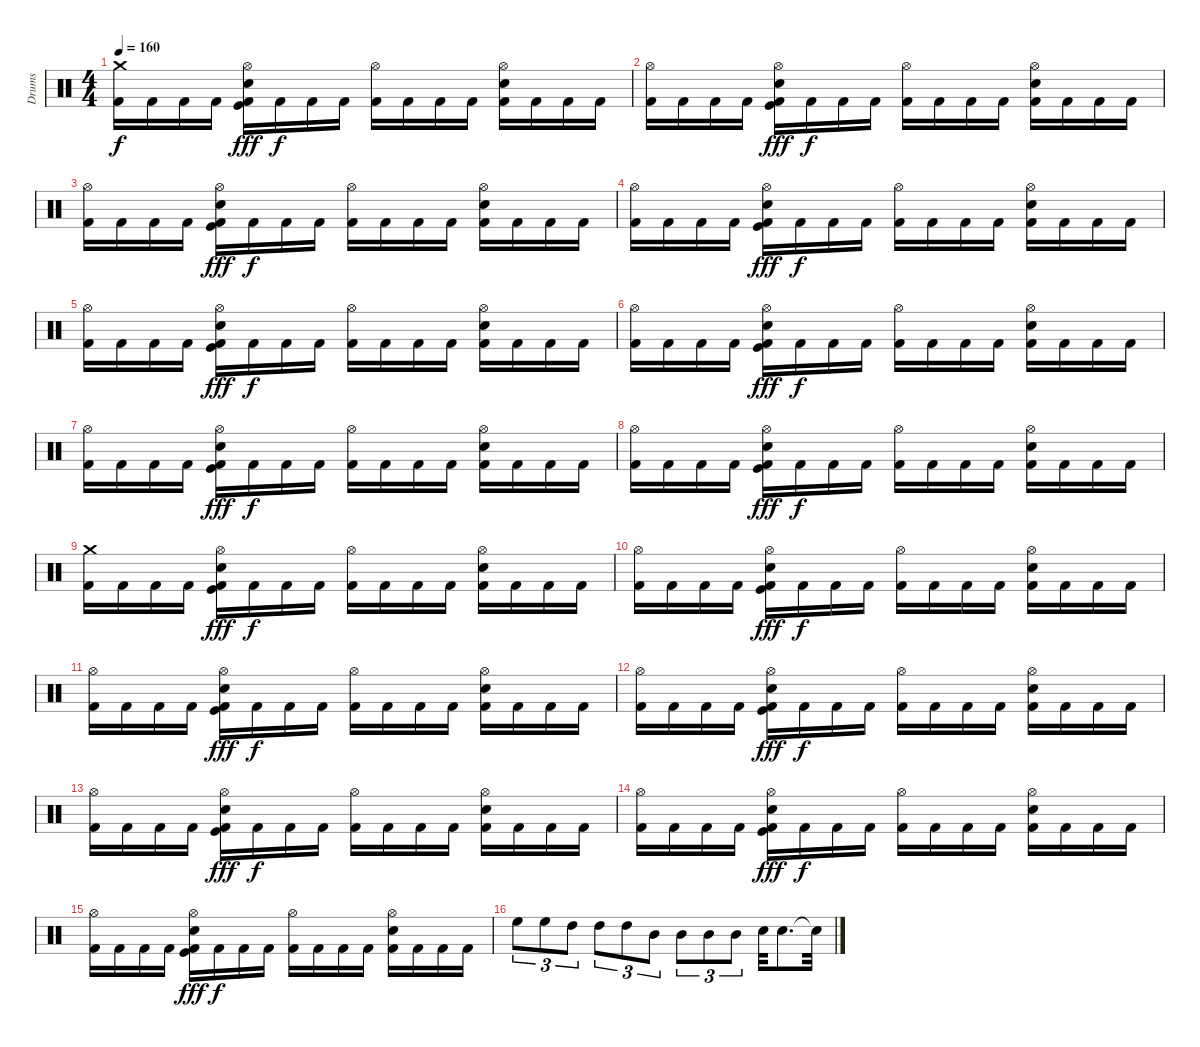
\track ("Drums" "Drums") {instrument percussion}
\staff {score}
\articulation defaults
\ts (4 4)
\tempo 160
\clef neutral
\ks c
("Kick (hit) 2" "Crash medium (hit)").16{dy f} "Kick (hit) 2".16 "Kick (hit) 2".16 "Kick (hit) 2".16 ("Kick (hit) 2" "Snare (hit) 2" "Kick (hit)" "Hi-Hat (open)").16{dy fff} "Kick (hit) 2".16{dy f} "Kick (hit) 2".16 "Kick (hit) 2".16 ("Kick (hit) 2" "Hi-Hat (open)").16 "Kick (hit) 2".16 "Kick (hit) 2".16 "Kick (hit) 2".16 ("Kick (hit) 2" "Snare (hit) 2" "Hi-Hat (open)").16 "Kick (hit) 2".16 "Kick (hit) 2".16 "Kick (hit) 2".16 |
("Kick (hit) 2" "Hi-Hat (open)").16 "Kick (hit) 2".16 "Kick (hit) 2".16 "Kick (hit) 2".16 ("Kick (hit) 2" "Snare (hit) 2" "Kick (hit)" "Hi-Hat (open)").16{dy fff} "Kick (hit) 2".16{dy f} "Kick (hit) 2".16 "Kick (hit) 2".16 ("Kick (hit) 2" "Hi-Hat (open)").16 "Kick (hit) 2".16 "Kick (hit) 2".16 "Kick (hit) 2".16 ("Kick (hit) 2" "Snare (hit) 2" "Hi-Hat (open)").16 "Kick (hit) 2".16 "Kick (hit) 2".16 "Kick (hit) 2".16 |
("Kick (hit) 2" "Hi-Hat (open)").16 "Kick (hit) 2".16 "Kick (hit) 2".16 "Kick (hit) 2".16 ("Kick (hit) 2" "Snare (hit) 2" "Kick (hit)" "Hi-Hat (open)").16{dy fff} "Kick (hit) 2".16{dy f} "Kick (hit) 2".16 "Kick (hit) 2".16 ("Kick (hit) 2" "Hi-Hat (open)").16 "Kick (hit) 2".16 "Kick (hit) 2".16 "Kick (hit) 2".16 ("Kick (hit) 2" "Snare (hit) 2" "Hi-Hat (open)").16 "Kick (hit) 2".16 "Kick (hit) 2".16 "Kick (hit) 2".16 |
("Kick (hit) 2" "Hi-Hat (open)").16 "Kick (hit) 2".16 "Kick (hit) 2".16 "Kick (hit) 2".16 ("Kick (hit) 2" "Snare (hit) 2" "Kick (hit)" "Hi-Hat (open)").16{dy fff} "Kick (hit) 2".16{dy f} "Kick (hit) 2".16 "Kick (hit) 2".16 ("Kick (hit) 2" "Hi-Hat (open)").16 "Kick (hit) 2".16 "Kick (hit) 2".16 "Kick (hit) 2".16 ("Kick (hit) 2" "Snare (hit) 2" "Hi-Hat (open)").16 "Kick (hit) 2".16 "Kick (hit) 2".16 "Kick (hit) 2".16 |
("Kick (hit) 2" "Hi-Hat (open)").16 "Kick (hit) 2".16 "Kick (hit) 2".16 "Kick (hit) 2".16 ("Kick (hit) 2" "Snare (hit) 2" "Kick (hit)" "Hi-Hat (open)").16{dy fff} "Kick (hit) 2".16{dy f} "Kick (hit) 2".16 "Kick (hit) 2".16 ("Kick (hit) 2" "Hi-Hat (open)").16 "Kick (hit) 2".16 "Kick (hit) 2".16 "Kick (hit) 2".16 ("Kick (hit) 2" "Snare (hit) 2" "Hi-Hat (open)").16 "Kick (hit) 2".16 "Kick (hit) 2".16 "Kick (hit) 2".16 |
("Kick (hit) 2" "Hi-Hat (open)").16 "Kick (hit) 2".16 "Kick (hit) 2".16 "Kick (hit) 2".16 ("Kick (hit) 2" "Snare (hit) 2" "Kick (hit)" "Hi-Hat (open)").16{dy fff} "Kick (hit) 2".16{dy f} "Kick (hit) 2".16 "Kick (hit) 2".16 ("Kick (hit) 2" "Hi-Hat (open)").16 "Kick (hit) 2".16 "Kick (hit) 2".16 "Kick (hit) 2".16 ("Kick (hit) 2" "Snare (hit) 2" "Hi-Hat (open)").16 "Kick (hit) 2".16 "Kick (hit) 2".16 "Kick (hit) 2".16 |
("Kick (hit) 2" "Hi-Hat (open)").16 "Kick (hit) 2".16 "Kick (hit) 2".16 "Kick (hit) 2".16 ("Kick (hit) 2" "Snare (hit) 2" "Kick (hit)" "Hi-Hat (open)").16{dy fff} "Kick (hit) 2".16{dy f} "Kick (hit) 2".16 "Kick (hit) 2".16 ("Kick (hit) 2" "Hi-Hat (open)").16 "Kick (hit) 2".16 "Kick (hit) 2".16 "Kick (hit) 2".16 ("Kick (hit) 2" "Snare (hit) 2" "Hi-Hat (open)").16 "Kick (hit) 2".16 "Kick (hit) 2".16 "Kick (hit) 2".16 |
("Kick (hit) 2" "Hi-Hat (open)").16 "Kick (hit) 2".16 "Kick (hit) 2".16 "Kick (hit) 2".16 ("Kick (hit) 2" "Snare (hit) 2" "Kick (hit)" "Hi-Hat (open)").16{dy fff} "Kick (hit) 2".16{dy f} "Kick (hit) 2".16 "Kick (hit) 2".16 ("Kick (hit) 2" "Hi-Hat (open)").16 "Kick (hit) 2".16 "Kick (hit) 2".16 "Kick (hit) 2".16 ("Kick (hit) 2" "Snare (hit) 2" "Hi-Hat (open)").16 "Kick (hit) 2".16 "Kick (hit) 2".16 "Kick (hit) 2".16 |
("Kick (hit) 2" "Crash medium (hit)").16 "Kick (hit) 2".16 "Kick (hit) 2".16 "Kick (hit) 2".16 ("Kick (hit) 2" "Snare (hit) 2" "Kick (hit)" "Hi-Hat (open)").16{dy fff} "Kick (hit) 2".16{dy f} "Kick (hit) 2".16 "Kick (hit) 2".16 ("Kick (hit) 2" "Hi-Hat (open)").16 "Kick (hit) 2".16 "Kick (hit) 2".16 "Kick (hit) 2".16 ("Kick (hit) 2" "Snare (hit) 2" "Hi-Hat (open)").16 "Kick (hit) 2".16 "Kick (hit) 2".16 "Kick (hit) 2".16 |
("Kick (hit) 2" "Hi-Hat (open)").16 "Kick (hit) 2".16 "Kick (hit) 2".16 "Kick (hit) 2".16 ("Kick (hit) 2" "Snare (hit) 2" "Kick (hit)" "Hi-Hat (open)").16{dy fff} "Kick (hit) 2".16{dy f} "Kick (hit) 2".16 "Kick (hit) 2".16 ("Kick (hit) 2" "Hi-Hat (open)").16 "Kick (hit) 2".16 "Kick (hit) 2".16 "Kick (hit) 2".16 ("Kick (hit) 2" "Snare (hit) 2" "Hi-Hat (open)").16 "Kick (hit) 2".16 "Kick (hit) 2".16 "Kick (hit) 2".16 |
("Kick (hit) 2" "Hi-Hat (open)").16 "Kick (hit) 2".16 "Kick (hit) 2".16 "Kick (hit) 2".16 ("Kick (hit) 2" "Snare (hit) 2" "Kick (hit)" "Hi-Hat (open)").16{dy fff} "Kick (hit) 2".16{dy f} "Kick (hit) 2".16 "Kick (hit) 2".16 ("Kick (hit) 2" "Hi-Hat (open)").16 "Kick (hit) 2".16 "Kick (hit) 2".16 "Kick (hit) 2".16 ("Kick (hit) 2" "Snare (hit) 2" "Hi-Hat (open)").16 "Kick (hit) 2".16 "Kick (hit) 2".16 "Kick (hit) 2".16 |
("Kick (hit) 2" "Hi-Hat (open)").16 "Kick (hit) 2".16 "Kick (hit) 2".16 "Kick (hit) 2".16 ("Kick (hit) 2" "Snare (hit) 2" "Kick (hit)" "Hi-Hat (open)").16{dy fff} "Kick (hit) 2".16{dy f} "Kick (hit) 2".16 "Kick (hit) 2".16 ("Kick (hit) 2" "Hi-Hat (open)").16 "Kick (hit) 2".16 "Kick (hit) 2".16 "Kick (hit) 2".16 ("Kick (hit) 2" "Snare (hit) 2" "Hi-Hat (open)").16 "Kick (hit) 2".16 "Kick (hit) 2".16 "Kick (hit) 2".16 |
("Kick (hit) 2" "Hi-Hat (open)").16 "Kick (hit) 2".16 "Kick (hit) 2".16 "Kick (hit) 2".16 ("Kick (hit) 2" "Snare (hit) 2" "Kick (hit)" "Hi-Hat (open)").16{dy fff} "Kick (hit) 2".16{dy f} "Kick (hit) 2".16 "Kick (hit) 2".16 ("Kick (hit) 2" "Hi-Hat (open)").16 "Kick (hit) 2".16 "Kick (hit) 2".16 "Kick (hit) 2".16 ("Kick (hit) 2" "Snare (hit) 2" "Hi-Hat (open)").16 "Kick (hit) 2".16 "Kick (hit) 2".16 "Kick (hit) 2".16 |
("Kick (hit) 2" "Hi-Hat (open)").16 "Kick (hit) 2".16 "Kick (hit) 2".16 "Kick (hit) 2".16 ("Kick (hit) 2" "Snare (hit) 2" "Kick (hit)" "Hi-Hat (open)").16{dy fff} "Kick (hit) 2".16{dy f} "Kick (hit) 2".16 "Kick (hit) 2".16 ("Kick (hit) 2" "Hi-Hat (open)").16 "Kick (hit) 2".16 "Kick (hit) 2".16 "Kick (hit) 2".16 ("Kick (hit) 2" "Snare (hit) 2" "Hi-Hat (open)").16 "Kick (hit) 2".16 "Kick (hit) 2".16 "Kick (hit) 2".16 |
("Kick (hit) 2" "Hi-Hat (open)").16 "Kick (hit) 2".16 "Kick (hit) 2".16 "Kick (hit) 2".16 ("Kick (hit) 2" "Snare (hit) 2" "Kick (hit)" "Hi-Hat (open)").16{dy fff} "Kick (hit) 2".16{dy f} "Kick (hit) 2".16 "Kick (hit) 2".16 ("Kick (hit) 2" "Hi-Hat (open)").16 "Kick (hit) 2".16 "Kick (hit) 2".16 "Kick (hit) 2".16 ("Kick (hit) 2" "Snare (hit) 2" "Hi-Hat (open)").16 "Kick (hit) 2".16 "Kick (hit) 2".16 "Kick (hit) 2".16 |
"High Floor Tom (hit)".8{tu (3 2)} "High Floor Tom (hit)".8{tu (3 2)} "High Tom (hit)".8{tu (3 2)} "High Tom (hit)".8{tu (3 2)} "High Tom (hit)".8{tu (3 2)} "Mid Tom (hit)".8{tu (3 2)} "Mid Tom (hit)".8{tu (3 2)} "Mid Tom (hit)".8{tu (3 2)} "Mid Tom (hit)".8{tu (3 2)} "Snare (hit) 2".32 "Snare (hit) 2".8{d} "Snare (hit)"{t}.32
